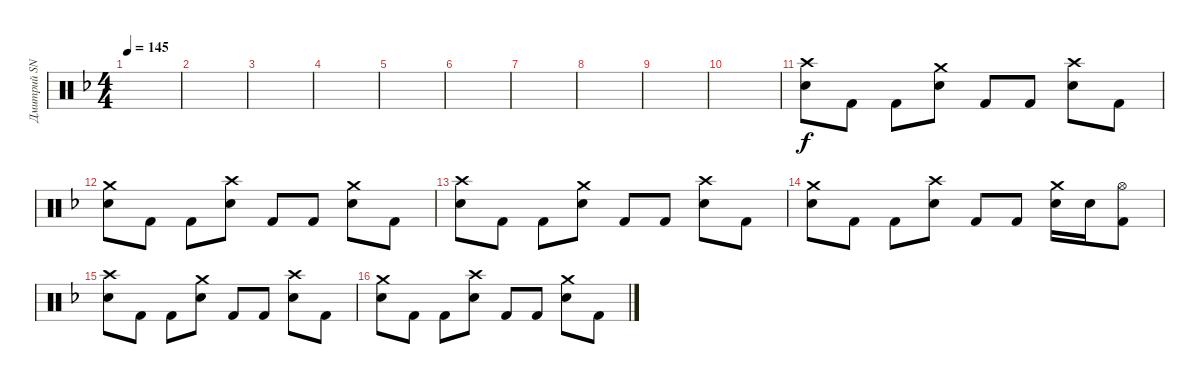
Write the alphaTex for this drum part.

\track ("Дмитрий SNAKE Хакимов" "Дмитрий SN") {instrument percussion}
\staff {score}
\articulation defaults
\ts (4 4)
\tempo 145
\clef neutral
\ks f
|
|
|
|
|
|
|
|
|
|
("Crash high (hit)" "Snare (hit) 2").8 "Kick (hit) 2".8 "Kick (hit) 2".8 ("Crash medium (hit)" "Snare (hit) 2").8 "Kick (hit) 2".8 "Kick (hit) 2".8 ("Crash high (hit)" "Snare (hit) 2").8 "Kick (hit) 2".8 |
("Crash medium (hit)" "Snare (hit) 2").8 "Kick (hit) 2".8 "Kick (hit) 2".8 ("Crash high (hit)" "Snare (hit) 2").8 "Kick (hit) 2".8 "Kick (hit) 2".8 ("Crash medium (hit)" "Snare (hit) 2").8 "Kick (hit) 2".8 |
("Crash high (hit)" "Snare (hit) 2").8 "Kick (hit) 2".8 "Kick (hit) 2".8 ("Crash medium (hit)" "Snare (hit) 2").8 "Kick (hit) 2".8 "Kick (hit) 2".8 ("Crash high (hit)" "Snare (hit) 2").8 "Kick (hit) 2".8 |
("Crash medium (hit)" "Snare (hit) 2").8 "Kick (hit) 2".8 "Kick (hit) 2".8 ("Crash high (hit)" "Snare (hit) 2").8 "Kick (hit) 2".8 "Kick (hit) 2".8 ("Crash medium (hit)" "Snare (hit) 2").16 "Snare (hit) 2".16 ("Hi-Hat (open)" "Kick (hit) 2").8 |
("Crash high (hit)" "Snare (hit) 2").8 "Kick (hit) 2".8 "Kick (hit) 2".8 ("Crash medium (hit)" "Snare (hit) 2").8 "Kick (hit) 2".8 "Kick (hit) 2".8 ("Crash high (hit)" "Snare (hit) 2").8 "Kick (hit) 2".8 |
("Crash medium (hit)" "Snare (hit) 2").8 "Kick (hit) 2".8 "Kick (hit) 2".8 ("Crash high (hit)" "Snare (hit) 2").8 "Kick (hit) 2".8 "Kick (hit) 2".8 ("Crash medium (hit)" "Snare (hit) 2").8 "Kick (hit) 2".8
